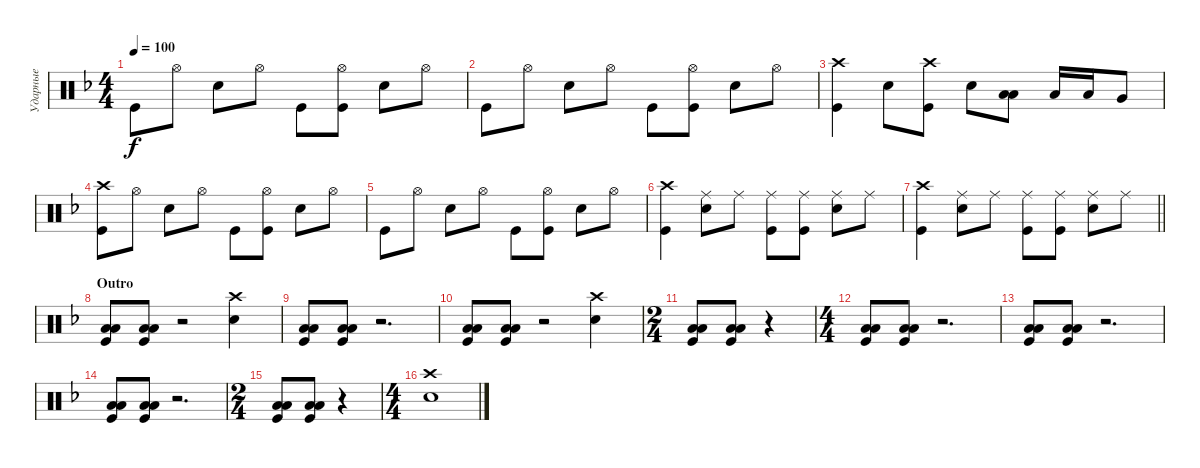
\track ("Ударные" "Ударные") {instrument percussion}
\staff {score}
\articulation defaults
\ts (4 4)
\tempo 100
\clef neutral
\ks dminor "Kick (hit)".8{dy f} "Hi-Hat (open)".8 "Snare (hit) 2".8 "Hi-Hat (open)".8 "Kick (hit)".8
("Hi-Hat (open)" "Kick (hit)").8 "Snare (hit) 2".8 "Hi-Hat (open)".8 |
"Kick (hit)".8 "Hi-Hat (open)".8 "Snare (hit) 2".8 "Hi-Hat (open)".8 "Kick (hit)".8 ("Hi-Hat (open)" "Kick (hit)").8 "Snare (hit) 2".8 "Hi-Hat (open)".8 |
("Kick (hit)" "Crash high (hit)").4 "Snare (hit) 2".8 ("Kick (hit)" "Crash high (hit)").8 "Snare (hit) 2".8 ("Low Tom (hit)" "Low Tom (hit)").8{bd 120} "Low Tom (hit)".16 "Low Tom (hit)".16 "Very Low Tom (hit)".8 |
("Kick (hit)" "Crash high (hit)").8 "Hi-Hat (open)".8 "Snare (hit) 2".8 "Hi-Hat (open)".8 "Kick (hit)".8 ("Hi-Hat (open)" "Kick (hit)").8 "Snare (hit) 2".8 "Hi-Hat (open)".8 |
"Kick (hit)".8 "Hi-Hat (open)".8 "Snare (hit) 2".8 "Hi-Hat (open)".8 "Kick (hit)".8 ("Hi-Hat (open)" "Kick (hit)").8 "Snare (hit) 2".8 "Hi-Hat (open)".8 |
("Kick (hit)" "Crash high (hit)").4 ("Snare (hit) 2" "Ride (middle)").8 "Ride (middle)".8 ("Ride (middle)" "Kick (hit)").8 ("Ride (middle)" "Kick (hit)").8 ("Ride (middle)" "Snare (hit) 2").8 "Ride (middle)".8 |
\barLineRight lightlight
("Kick (hit)" "Crash high (hit)").4 ("Snare (hit) 2" "Ride (middle)").8 "Ride (middle)".8 ("Ride (middle)" "Kick (hit)").8 ("Ride (middle)" "Kick (hit)").8 ("Ride (middle)" "Snare (hit) 2").8 "Ride (middle)".8 |
\section ("" "Outro")
("Kick (hit)" "Low Floor Tom (hit)" "Low Floor Tom (hit)").8{bd 60} ("Kick (hit)" "Low Floor Tom (hit)" "Low Floor Tom (hit)").8{bd 60} r.2 ("Snare (hit) 2" "Crash high (hit)").4 |
("Kick (hit)" "Low Floor Tom (hit)" "Low Floor Tom (hit)").8{bd 60} ("Kick (hit)" "Low Floor Tom (hit)" "Low Floor Tom (hit)").8{bd 60} r.2{d} |
("Kick (hit)" "Low Floor Tom (hit)" "Low Floor Tom (hit)").8{bd 60} ("Kick (hit)" "Low Floor Tom (hit)" "Low Floor Tom (hit)").8{bd 60} r.2 ("Snare (hit) 2" "Crash high (hit)").4 |
\ts (2 4)
("Kick (hit)" "Low Floor Tom (hit)" "Low Floor Tom (hit)").8{bd 60} ("Kick (hit)" "Low Floor Tom (hit)" "Low Floor Tom (hit)").8{bd 60} r.4 |
\ts (4 4)
("Kick (hit)" "Low Floor Tom (hit)" "Low Floor Tom (hit)").8{bd 60} ("Kick (hit)" "Low Floor Tom (hit)" "Low Floor Tom (hit)").8{bd 60} r.2{d} |
("Kick (hit)" "Low Floor Tom (hit)" "Low Floor Tom (hit)").8{bd 60 volume 2} ("Kick (hit)" "Low Floor Tom (hit)" "Low Floor Tom (hit)").8{bd 60} r.2{d} |
("Kick (hit)" "Low Floor Tom (hit)" "Low Floor Tom (hit)").8{bd 60} ("Kick (hit)" "Low Floor Tom (hit)" "Low Floor Tom (hit)").8{bd 60} r.2{d} |
\ts (2 4)
("Kick (hit)" "Low Floor Tom (hit)" "Low Floor Tom (hit)").8{bd 60} ("Kick (hit)" "Low Floor Tom (hit)" "Low Floor Tom (hit)").8{bd 60} r.4 |
\ts (4 4)
("Snare (hit) 2" "Crash high (hit)").1
